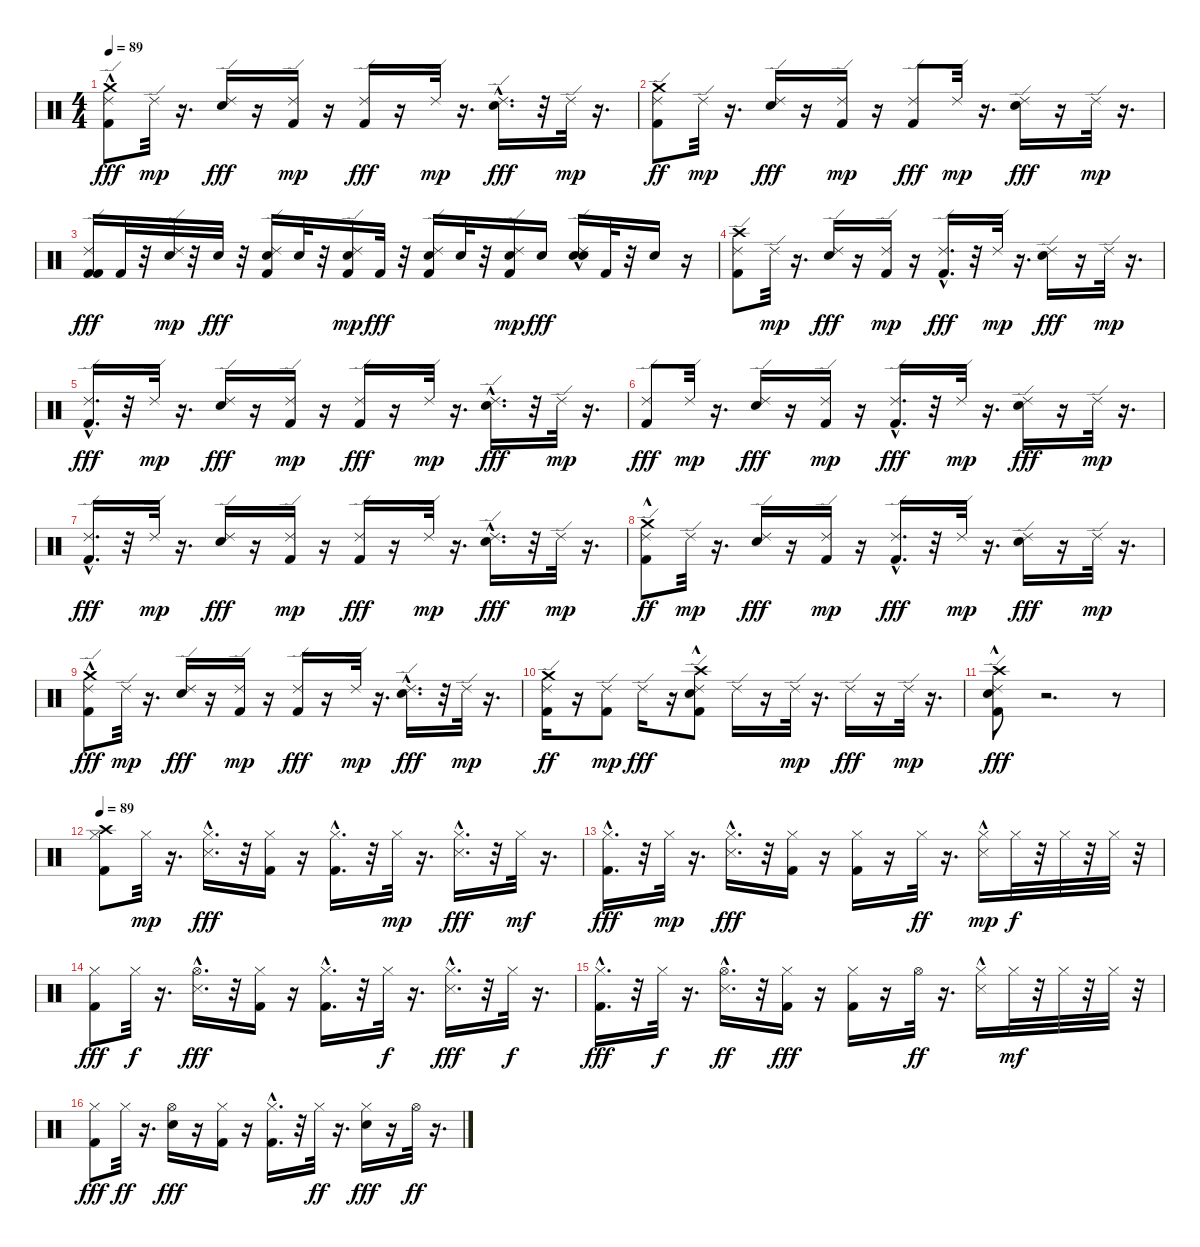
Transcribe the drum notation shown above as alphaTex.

\track "" {instrument percussion}
\staff {score}
\articulation defaults
\ts (4 4)
\tempo 89
\clef neutral
\ks c
("Kick (hit) 2"{hac} "Ride (edge) 2" "Crash medium (hit)"{hac}).8{dy fff} "Ride (edge) 2".32{dy mp} r.16{d} ("Snare (hit) 2" "Ride (edge) 2").16{dy fff} r.16 ("Kick (hit) 2" "Ride (edge) 2").16{dy mp} r.16 ("Kick (hit) 2" "Ride (edge) 2").16{dy fff} r.16 "Ride (edge) 2".32{dy mp} r.16{d} ("Snare (hit) 2"{hac} "Ride (edge) 2").16{d dy fff} r.32 "Ride (edge) 2".32{dy mp} r.16{d} |
("Kick (hit) 2" "Ride (edge) 2" "Crash medium (hit)").8{dy ff} "Ride (edge) 2".32{dy mp} r.16{d} ("Snare (hit) 2" "Ride (edge) 2").16{dy fff} r.16 ("Kick (hit) 2" "Ride (edge) 2").16{dy mp} r.16 ("Kick (hit) 2" "Ride (edge) 2").8{dy fff} "Ride (edge) 2".32{dy mp} r.16{d} ("Snare (hit) 2" "Ride (edge) 2").16{dy fff} r.16 "Ride (edge) 2".32{dy mp} r.16{d} |
("Kick (hit) 2" "Kick (hit) 2" "Ride (edge) 2").16{dy fff} "Kick (hit) 2".32 r.32 ("Snare (hit) 2" "Ride (edge) 2").32{dy mp} r.32 "Snare (hit) 2".32{dy fff} r.32 ("Kick (hit) 2" "Snare (hit) 2" "Ride (edge) 2").16 "Snare (hit) 2".32 r.32 ("Kick (hit) 2" "Snare (hit) 2" "Ride (edge) 2").16{dy mp} "Kick (hit) 2".32{dy fff} r.32 ("Kick (hit) 2" "Snare (hit) 2" "Ride (edge) 2").16 "Snare (hit) 2".32 r.32 ("Snare (hit) 2" "Kick (hit) 2" "Ride (edge) 2").16{dy mp} "Snare (hit) 2".16{dy fff} ("Snare (hit) 2"{hac} "Snare (hit) 2"{hac} "Ride (edge) 2").16 "Kick (hit) 2".32 r.32 "Snare (hit) 2".16 r.16 |
("Kick (hit) 2" "Crash high (hit)" "Ride (edge) 2").8 "Ride (edge) 2".32{dy mp} r.16{d} ("Snare (hit) 2" "Ride (edge) 2").16{dy fff} r.16 ("Kick (hit) 2" "Ride (edge) 2").16{dy mp} r.16 ("Kick (hit) 2"{hac} "Ride (edge) 2").16{d dy fff} r.32 "Ride (edge) 2".32{dy mp} r.16{d} ("Snare (hit) 2" "Ride (edge) 2").16{dy fff} r.16 "Ride (edge) 2".32{dy mp} r.16{d} |
("Kick (hit) 2"{hac} "Ride (edge) 2").16{d dy fff} r.32 "Ride (edge) 2".32{dy mp} r.16{d} ("Snare (hit) 2" "Ride (edge) 2").16{dy fff} r.16 ("Kick (hit) 2" "Ride (edge) 2").16{dy mp} r.16 ("Kick (hit) 2" "Ride (edge) 2").16{dy fff} r.16 "Ride (edge) 2".32{dy mp} r.16{d} ("Snare (hit) 2"{hac} "Ride (edge) 2").16{d dy fff} r.32 "Ride (edge) 2".32{dy mp} r.16{d} |
("Kick (hit) 2" "Ride (edge) 2").8{dy fff} "Ride (edge) 2".32{dy mp} r.16{d} ("Snare (hit) 2" "Ride (edge) 2").16{dy fff} r.16 ("Kick (hit) 2" "Ride (edge) 2").16{dy mp} r.16 ("Kick (hit) 2"{hac} "Ride (edge) 2").16{d dy fff} r.32 "Ride (edge) 2".32{dy mp} r.16{d} ("Snare (hit) 2" "Ride (edge) 2").16{dy fff} r.16 "Ride (edge) 2".32{dy mp} r.16{d} |
("Kick (hit) 2"{hac} "Ride (edge) 2").16{d dy fff} r.32 "Ride (edge) 2".32{dy mp} r.16{d} ("Snare (hit) 2" "Ride (edge) 2").16{dy fff} r.16 ("Kick (hit) 2" "Ride (edge) 2").16{dy mp} r.16 ("Kick (hit) 2" "Ride (edge) 2").16{dy fff} r.16 "Ride (edge) 2".32{dy mp} r.16{d} ("Snare (hit) 2"{hac} "Ride (edge) 2").16{d dy fff} r.32 "Ride (edge) 2".32{dy mp} r.16{d} |
("Kick (hit) 2" "Ride (edge) 2" "Crash medium (hit)"{hac}).8{dy ff} "Ride (edge) 2".32{dy mp} r.16{d} ("Snare (hit) 2" "Ride (edge) 2").16{dy fff} r.16 ("Kick (hit) 2" "Ride (edge) 2").16{dy mp} r.16 ("Kick (hit) 2"{hac} "Ride (edge) 2").16{d dy fff} r.32 "Ride (edge) 2".32{dy mp} r.16{d} ("Snare (hit) 2" "Ride (edge) 2").16{dy fff} r.16 "Ride (edge) 2".32{dy mp} r.16{d} |
("Kick (hit) 2"{hac} "Ride (edge) 2" "Crash medium (hit)"{hac}).8{dy fff} "Ride (edge) 2".32{dy mp} r.16{d} ("Snare (hit) 2" "Ride (edge) 2").16{dy fff} r.16 ("Kick (hit) 2" "Ride (edge) 2").16{dy mp} r.16 ("Kick (hit) 2" "Ride (edge) 2").16{dy fff} r.16 "Ride (edge) 2".32{dy mp} r.16{d} ("Snare (hit) 2"{hac} "Ride (edge) 2").16{d dy fff} r.32 "Ride (edge) 2".32{dy mp} r.16{d} |
("Kick (hit) 2" "Ride (edge) 2" "Crash medium (hit)").16{dy ff} r.16 ("Kick (hit) 2" "Ride (edge) 2").8{dy mp} "Ride (edge) 2".16{dy fff} r.16 ("Kick (hit) 2" "Snare (hit) 2" "Ride (edge) 2" "Crash high (hit)"{hac}).8 "Ride (edge) 2".16 r.16 "Ride (edge) 2".32{dy mp} r.16{d} "Ride (edge) 2".16{dy fff} r.16 "Ride (edge) 2".32{dy mp} r.16{d} |
("Ride (edge) 2" "Kick (hit) 2"{hac} "Snare (hit) 2" "Crash high (hit)"{hac}).8{dy fff} r.2{d} r.8 |
\tempo 89
("Crash high (hit)" "Kick (hit) 2" "Hi-Hat (closed)").8 "Hi-Hat (closed)".32{dy mp} r.16{d} ("Snare (side stick) 3"{hac} "Hi-Hat (closed)").16{d dy fff} r.32 ("Hi-Hat (closed)" "Kick (hit) 2").16 r.16 ("Hi-Hat (closed)" "Kick (hit) 2"{hac}).16{d} r.32 "Hi-Hat (closed)".32{dy mp} r.16{d} ("Hi-Hat (closed)" "Snare (side stick) 3"{hac}).16{d dy fff} r.32 "Hi-Hat (closed)".32{dy mf} r.16{d} |
("Hi-Hat (closed)" "Kick (hit) 2"{hac}).16{d dy fff} r.32 "Hi-Hat (closed)".32{dy mp} r.16{d} ("Snare (side stick) 3"{hac} "Hi-Hat (closed)").16{d dy fff} r.32 ("Hi-Hat (closed)" "Kick (hit) 2").16 r.16 ("Hi-Hat (closed)" "Kick (hit) 2").16 r.16 "Hi-Hat (closed)".32{dy ff} r.16{d} ("Snare (side stick) 3"{hac} "Hi-Hat (closed)").16{dy mp} "Hi-Hat (closed)".32{dy f} r.32 "Hi-Hat (closed)".32 r.32 "Hi-Hat (closed)".32 r.32 |
("Hi-Hat (closed)" "Kick (hit) 2").8{dy fff} "Hi-Hat (closed)".32{dy f} r.16{d} ("Hi-Hat (open)" "Snare (side stick) 3"{hac}).16{d dy fff} r.32 ("Hi-Hat (closed)" "Kick (hit) 2").16 r.16 ("Hi-Hat (closed)" "Kick (hit) 2"{hac}).16{d} r.32 "Hi-Hat (closed)".32{dy f} r.16{d} ("Hi-Hat (closed)" "Snare (side stick) 3"{hac}).16{d dy fff} r.32 "Hi-Hat (closed)".32{dy f} r.16{d} |
("Hi-Hat (closed)" "Kick (hit) 2"{hac}).16{d dy fff} r.32 "Hi-Hat (closed)".32{dy f} r.16{d} ("Snare (side stick) 3"{hac} "Hi-Hat (open)").16{d dy ff} r.32 ("Hi-Hat (closed)" "Kick (hit) 2").16{dy fff} r.16 ("Hi-Hat (closed)" "Kick (hit) 2").16 r.16 "Hi-Hat (open)".32{dy ff} r.16{d} ("Snare (side stick) 3"{hac} "Hi-Hat (closed)").16 "Hi-Hat (closed)".32{dy mf} r.32 "Hi-Hat (closed)".32 r.32 "Hi-Hat (closed)".32 r.32 |
("Hi-Hat (closed)" "Kick (hit) 2").8{dy fff} "Hi-Hat (closed)".32{dy ff} r.16{d} ("Hi-Hat (open)" "Snare (hit) 2").16{dy fff} r.16 ("Hi-Hat (closed)" "Kick (hit) 2").16 r.16 ("Hi-Hat (closed)" "Kick (hit) 2"{hac}).16{d} r.32 "Hi-Hat (closed)".32{dy ff} r.16{d} ("Hi-Hat (closed)" "Snare (hit) 2").16{dy fff} r.16 "Hi-Hat (open)".32{dy ff} r.16{d}
